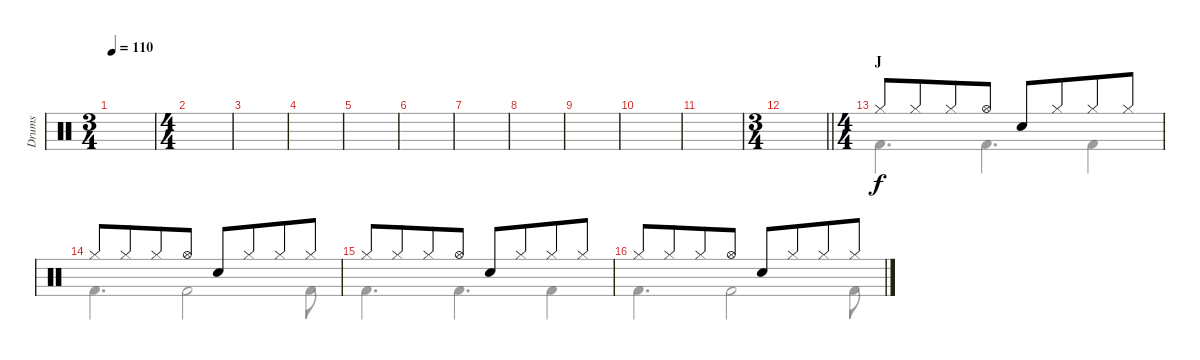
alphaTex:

\track ("Drums" "Drums") {instrument percussion}
\staff {score}
\articulation defaults
\voice
\ts (3 4)
\tempo 110
\clef neutral
\ks c
|
\ts (4 4)
|
|
|
|
|
|
|
|
|
|
\ts (3 4)
\barLineRight lightlight
|
\ts (4 4)
\section ("" "J")
"Hi-Hat (closed)".8 "Hi-Hat (closed)".8{beam merge} "Hi-Hat (closed)".8 "Hi-Hat (open)".8 "Snare (hit) 2".8 "Hi-Hat (closed)".8{beam merge} "Hi-Hat (closed)".8 "Hi-Hat (closed)".8 |
"Hi-Hat (closed)".8 "Hi-Hat (closed)".8{beam merge} "Hi-Hat (closed)".8 "Hi-Hat (open)".8 "Snare (hit) 2".8 "Hi-Hat (closed)".8{beam merge} "Hi-Hat (closed)".8 "Hi-Hat (closed)".8 |
"Hi-Hat (closed)".8 "Hi-Hat (closed)".8{beam merge} "Hi-Hat (closed)".8 "Hi-Hat (open)".8 "Snare (hit) 2".8 "Hi-Hat (closed)".8{beam merge} "Hi-Hat (closed)".8 "Hi-Hat (closed)".8 |
"Hi-Hat (closed)".8 "Hi-Hat (closed)".8{beam merge} "Hi-Hat (closed)".8 "Hi-Hat (open)".8 "Snare (hit) 2".8 "Hi-Hat (closed)".8{beam merge} "Hi-Hat (closed)".8 "Hi-Hat (closed)".8
\voice
\clef neutral
\ottava regular
\simile none
\ks c
|
|
|
|
|
|
|
|
|
|
|
\barLineRight lightlight
|
"Kick (hit) 2".4{d} "Kick (hit) 2".4{d} "Kick (hit) 2".4 |
"Kick (hit) 2".4{d} "Kick (hit) 2".2 "Kick (hit) 2".8 |
"Kick (hit) 2".4{d} "Kick (hit) 2".4{d} "Kick (hit) 2".4 |
"Kick (hit) 2".4{d} "Kick (hit) 2".2 "Kick (hit) 2".8
